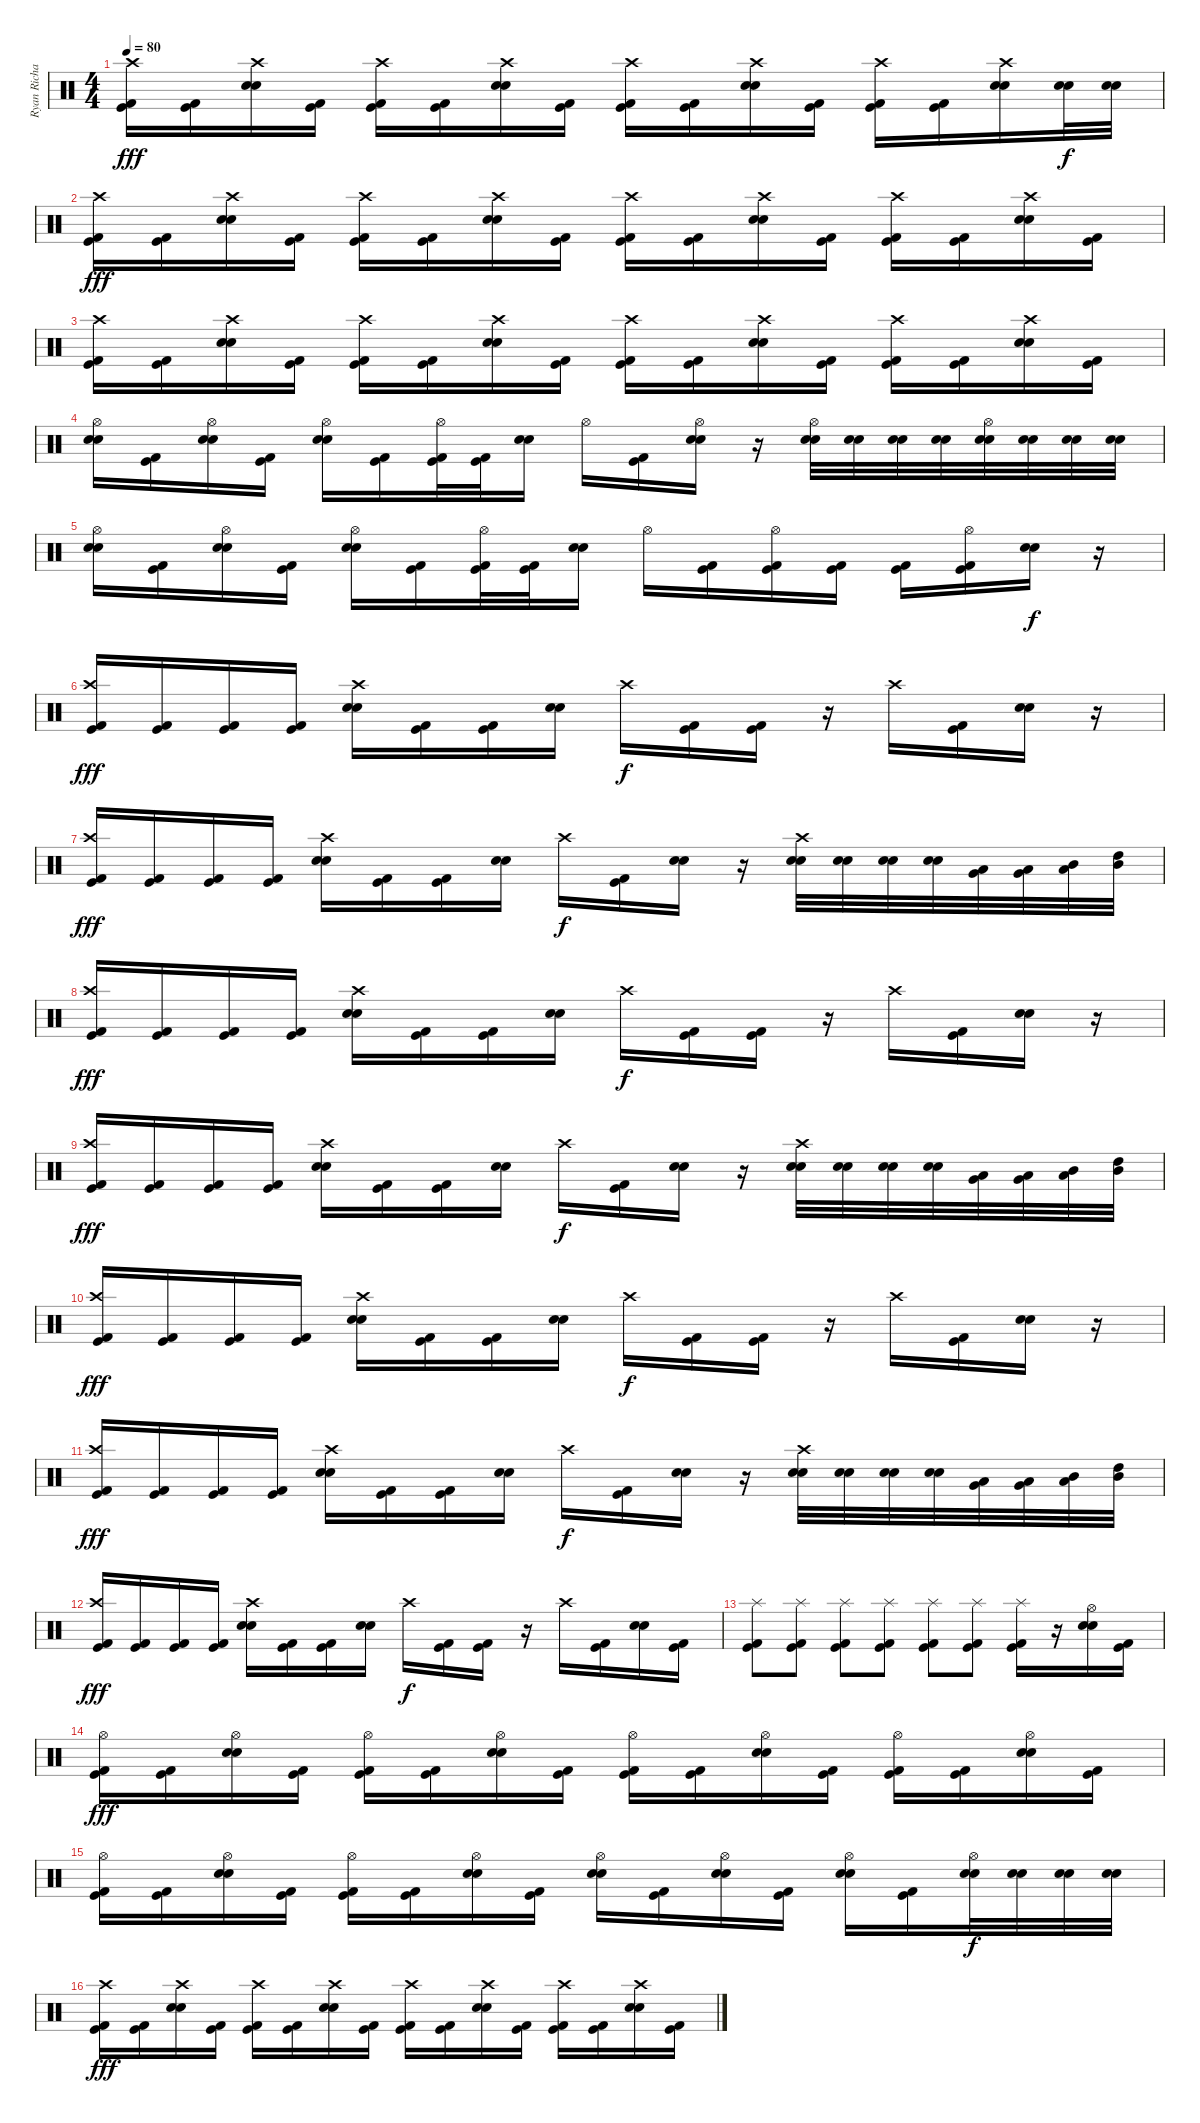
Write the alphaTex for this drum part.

\track ("Ryan Richards" "Ryan Richa") {instrument percussion}
\staff {score}
\articulation defaults
\ts (4 4)
\tempo 80
\clef neutral
\ks c
("Kick (hit)" "Crash high (hit)" "Kick (hit) 2").16{dy fff} ("Kick (hit)" "Kick (hit) 2").16 ("Crash high (hit)" "Snare (hit) 2" "Electric Snare (hit)").16 ("Kick (hit)" "Kick (hit) 2").16 ("Kick (hit)" "Crash high (hit)" "Kick (hit) 2").16 ("Kick (hit)" "Kick (hit) 2").16 ("Crash high (hit)" "Snare (hit) 2" "Electric Snare (hit)").16 ("Kick (hit)" "Kick (hit) 2").16 ("Kick (hit)" "Crash high (hit)" "Kick (hit) 2").16 ("Kick (hit)" "Kick (hit) 2").16 ("Crash high (hit)" "Snare (hit) 2" "Electric Snare (hit)").16 ("Kick (hit)" "Kick (hit) 2").16 ("Kick (hit)" "Crash high (hit)" "Kick (hit) 2").16 ("Kick (hit)" "Kick (hit) 2").16 ("Crash high (hit)" "Snare (hit) 2" "Electric Snare (hit)").16 ("Snare (hit) 2" "Electric Snare (hit)").32{dy f} ("Snare (hit) 2" "Electric Snare (hit)").32 |
("Kick (hit)" "Crash high (hit)" "Kick (hit) 2").16{dy fff} ("Kick (hit)" "Kick (hit) 2").16 ("Crash high (hit)" "Snare (hit) 2" "Electric Snare (hit)").16 ("Kick (hit)" "Kick (hit) 2").16 ("Kick (hit)" "Crash high (hit)" "Kick (hit) 2").16 ("Kick (hit)" "Kick (hit) 2").16 ("Crash high (hit)" "Snare (hit) 2" "Electric Snare (hit)").16 ("Kick (hit)" "Kick (hit) 2").16 ("Kick (hit)" "Crash high (hit)" "Kick (hit) 2").16 ("Kick (hit)" "Kick (hit) 2").16 ("Crash high (hit)" "Snare (hit) 2" "Electric Snare (hit)").16 ("Kick (hit)" "Kick (hit) 2").16 ("Kick (hit)" "Crash high (hit)" "Kick (hit) 2").16 ("Kick (hit)" "Kick (hit) 2").16 ("Crash high (hit)" "Snare (hit) 2" "Electric Snare (hit)").16 ("Kick (hit)" "Kick (hit) 2").16 |
("Kick (hit)" "Crash high (hit)" "Kick (hit) 2").16 ("Kick (hit)" "Kick (hit) 2").16 ("Crash high (hit)" "Snare (hit) 2" "Electric Snare (hit)").16 ("Kick (hit)" "Kick (hit) 2").16 ("Kick (hit)" "Crash high (hit)" "Kick (hit) 2").16 ("Kick (hit)" "Kick (hit) 2").16 ("Crash high (hit)" "Snare (hit) 2" "Electric Snare (hit)").16 ("Kick (hit)" "Kick (hit) 2").16 ("Kick (hit)" "Crash high (hit)" "Kick (hit) 2").16 ("Kick (hit)" "Kick (hit) 2").16 ("Crash high (hit)" "Snare (hit) 2" "Electric Snare (hit)").16 ("Kick (hit)" "Kick (hit) 2").16 ("Kick (hit)" "Crash high (hit)" "Kick (hit) 2").16 ("Kick (hit)" "Kick (hit) 2").16 ("Crash high (hit)" "Snare (hit) 2" "Electric Snare (hit)").16 ("Kick (hit)" "Kick (hit) 2").16 |
("Hi-Hat (open)" "Snare (hit) 2" "Electric Snare (hit)").16 ("Kick (hit)" "Kick (hit) 2").16 ("Hi-Hat (open)" "Snare (hit) 2" "Electric Snare (hit)").16 ("Kick (hit)" "Kick (hit) 2").16 ("Hi-Hat (open)" "Snare (hit) 2" "Electric Snare (hit)").16 ("Kick (hit)" "Kick (hit) 2").16 ("Kick (hit)" "Hi-Hat (open)" "Kick (hit) 2").32 ("Kick (hit)" "Kick (hit) 2").32 ("Snare (hit) 2" "Electric Snare (hit)").16 "Hi-Hat (open)".16 ("Kick (hit)" "Kick (hit) 2").16 ("Hi-Hat (open)" "Snare (hit) 2" "Electric Snare (hit)").16 r.16 ("Hi-Hat (open)" "Snare (hit) 2" "Electric Snare (hit)").32 ("Snare (hit) 2" "Electric Snare (hit)").32 ("Snare (hit) 2" "Electric Snare (hit)").32 ("Snare (hit) 2" "Electric Snare (hit)").32 ("Hi-Hat (open)" "Snare (hit) 2" "Electric Snare (hit)").32 ("Snare (hit) 2" "Electric Snare (hit)").32 ("Snare (hit) 2" "Electric Snare (hit)").32 ("Snare (hit) 2" "Electric Snare (hit)").32 |
("Hi-Hat (open)" "Snare (hit) 2" "Electric Snare (hit)").16 ("Kick (hit)" "Kick (hit) 2").16 ("Hi-Hat (open)" "Snare (hit) 2" "Electric Snare (hit)").16 ("Kick (hit)" "Kick (hit) 2").16 ("Hi-Hat (open)" "Snare (hit) 2" "Electric Snare (hit)").16 ("Kick (hit)" "Kick (hit) 2").16 ("Kick (hit)" "Hi-Hat (open)" "Kick (hit) 2").32 ("Kick (hit)" "Kick (hit) 2").32 ("Snare (hit) 2" "Electric Snare (hit)").16 "Hi-Hat (open)".16 ("Kick (hit)" "Kick (hit) 2").16 ("Kick (hit)" "Hi-Hat (open)" "Kick (hit) 2").16 ("Kick (hit)" "Kick (hit) 2").16 ("Kick (hit)" "Kick (hit) 2").16 ("Kick (hit)" "Hi-Hat (open)" "Kick (hit) 2").16 ("Snare (hit) 2" "Electric Snare (hit)").16{dy f} r.16 |
("Kick (hit)" "Crash high (hit)" "Kick (hit) 2").16{dy fff} ("Kick (hit)" "Kick (hit) 2").16 ("Kick (hit)" "Kick (hit) 2").16 ("Kick (hit)" "Kick (hit) 2").16 ("Snare (hit) 2" "Crash high (hit)" "Electric Snare (hit)").16 ("Kick (hit)" "Kick (hit) 2").16 ("Kick (hit)" "Kick (hit) 2").16 ("Snare (hit) 2" "Electric Snare (hit)").16 "Crash high (hit)".16{dy f} ("Kick (hit)" "Kick (hit) 2").16 ("Kick (hit)" "Kick (hit) 2").16 r.16 "Crash high (hit)".16 ("Kick (hit)" "Kick (hit) 2").16 ("Snare (hit) 2" "Electric Snare (hit)").16 r.16 |
("Kick (hit)" "Crash high (hit)" "Kick (hit) 2").16{dy fff} ("Kick (hit)" "Kick (hit) 2").16 ("Kick (hit)" "Kick (hit) 2").16 ("Kick (hit)" "Kick (hit) 2").16 ("Snare (hit) 2" "Crash high (hit)" "Electric Snare (hit)").16 ("Kick (hit)" "Kick (hit) 2").16 ("Kick (hit)" "Kick (hit) 2").16 ("Snare (hit) 2" "Electric Snare (hit)").16 "Crash high (hit)".16{dy f} ("Kick (hit)" "Kick (hit) 2").16 ("Snare (hit) 2" "Electric Snare (hit)").16 r.16 ("Snare (hit) 2" "Crash high (hit)" "Electric Snare (hit)").32 ("Snare (hit) 2" "Electric Snare (hit)").32 ("Snare (hit) 2" "Electric Snare (hit)").32 ("Snare (hit) 2" "Electric Snare (hit)").32 ("Very Low Tom (hit)" "Low Floor Tom (hit)").32 ("Low Tom (hit)" "Very Low Tom (hit)").32 ("Mid Tom (hit)" "Low Tom (hit)").32 ("High Tom (hit)" "Mid Tom (hit)").32 |
("Kick (hit)" "Crash high (hit)" "Kick (hit) 2").16{dy fff} ("Kick (hit)" "Kick (hit) 2").16 ("Kick (hit)" "Kick (hit) 2").16 ("Kick (hit)" "Kick (hit) 2").16 ("Snare (hit) 2" "Crash high (hit)" "Electric Snare (hit)").16 ("Kick (hit)" "Kick (hit) 2").16 ("Kick (hit)" "Kick (hit) 2").16 ("Snare (hit) 2" "Electric Snare (hit)").16 "Crash high (hit)".16{dy f} ("Kick (hit)" "Kick (hit) 2").16 ("Kick (hit)" "Kick (hit) 2").16 r.16 "Crash high (hit)".16 ("Kick (hit)" "Kick (hit) 2").16 ("Snare (hit) 2" "Electric Snare (hit)").16 r.16 |
("Kick (hit)" "Crash high (hit)" "Kick (hit) 2").16{dy fff} ("Kick (hit)" "Kick (hit) 2").16 ("Kick (hit)" "Kick (hit) 2").16 ("Kick (hit)" "Kick (hit) 2").16 ("Snare (hit) 2" "Crash high (hit)" "Electric Snare (hit)").16 ("Kick (hit)" "Kick (hit) 2").16 ("Kick (hit)" "Kick (hit) 2").16 ("Snare (hit) 2" "Electric Snare (hit)").16 "Crash high (hit)".16{dy f} ("Kick (hit)" "Kick (hit) 2").16 ("Snare (hit) 2" "Electric Snare (hit)").16 r.16 ("Snare (hit) 2" "Crash high (hit)" "Electric Snare (hit)").32 ("Snare (hit) 2" "Electric Snare (hit)").32 ("Snare (hit) 2" "Electric Snare (hit)").32 ("Snare (hit) 2" "Electric Snare (hit)").32 ("Very Low Tom (hit)" "Low Floor Tom (hit)").32 ("Low Tom (hit)" "Very Low Tom (hit)").32 ("Mid Tom (hit)" "Low Tom (hit)").32 ("High Tom (hit)" "Mid Tom (hit)").32 |
("Kick (hit)" "Crash high (hit)" "Kick (hit) 2").16{dy fff} ("Kick (hit)" "Kick (hit) 2").16 ("Kick (hit)" "Kick (hit) 2").16 ("Kick (hit)" "Kick (hit) 2").16 ("Snare (hit) 2" "Crash high (hit)" "Electric Snare (hit)").16 ("Kick (hit)" "Kick (hit) 2").16 ("Kick (hit)" "Kick (hit) 2").16 ("Snare (hit) 2" "Electric Snare (hit)").16 "Crash high (hit)".16{dy f} ("Kick (hit)" "Kick (hit) 2").16 ("Kick (hit)" "Kick (hit) 2").16 r.16 "Crash high (hit)".16 ("Kick (hit)" "Kick (hit) 2").16 ("Snare (hit) 2" "Electric Snare (hit)").16 r.16 |
("Kick (hit)" "Crash high (hit)" "Kick (hit) 2").16{dy fff} ("Kick (hit)" "Kick (hit) 2").16 ("Kick (hit)" "Kick (hit) 2").16 ("Kick (hit)" "Kick (hit) 2").16 ("Snare (hit) 2" "Crash high (hit)" "Electric Snare (hit)").16 ("Kick (hit)" "Kick (hit) 2").16 ("Kick (hit)" "Kick (hit) 2").16 ("Snare (hit) 2" "Electric Snare (hit)").16 "Crash high (hit)".16{dy f} ("Kick (hit)" "Kick (hit) 2").16 ("Snare (hit) 2" "Electric Snare (hit)").16 r.16 ("Snare (hit) 2" "Crash high (hit)" "Electric Snare (hit)").32 ("Snare (hit) 2" "Electric Snare (hit)").32 ("Snare (hit) 2" "Electric Snare (hit)").32 ("Snare (hit) 2" "Electric Snare (hit)").32 ("Very Low Tom (hit)" "Low Floor Tom (hit)").32 ("Low Tom (hit)" "Very Low Tom (hit)").32 ("Mid Tom (hit)" "Low Tom (hit)").32 ("High Tom (hit)" "Mid Tom (hit)").32 |
("Kick (hit)" "Crash high (hit)" "Kick (hit) 2").16{dy fff} ("Kick (hit)" "Kick (hit) 2").16 ("Kick (hit)" "Kick (hit) 2").16 ("Kick (hit)" "Kick (hit) 2").16 ("Snare (hit) 2" "Crash high (hit)" "Electric Snare (hit)").16 ("Kick (hit)" "Kick (hit) 2").16 ("Kick (hit)" "Kick (hit) 2").16 ("Snare (hit) 2" "Electric Snare (hit)").16 "Crash high (hit)".16{dy f} ("Kick (hit)" "Kick (hit) 2").16 ("Kick (hit)" "Kick (hit) 2").16 r.16 "Crash high (hit)".16 ("Kick (hit)" "Kick (hit) 2").16 ("Snare (hit) 2" "Electric Snare (hit)").16 ("Kick (hit)" "Kick (hit) 2").16 |
("Kick (hit)" "Splash (hit)" "Kick (hit) 2").8 ("Kick (hit)" "Splash (hit)" "Kick (hit) 2").8 ("Kick (hit)" "Splash (hit)" "Kick (hit) 2").8 ("Kick (hit)" "Splash (hit)" "Kick (hit) 2").8 ("Kick (hit)" "Splash (hit)" "Kick (hit) 2").8 ("Kick (hit)" "Splash (hit)" "Kick (hit) 2").8 ("Kick (hit)" "Splash (hit)" "Kick (hit) 2").16 r.16 ("Hi-Hat (open)" "Snare (hit) 2" "Electric Snare (hit)").16 ("Kick (hit)" "Kick (hit) 2").16 |
("Kick (hit)" "Hi-Hat (open)" "Kick (hit) 2").16{dy fff} ("Kick (hit)" "Kick (hit) 2").16 ("Hi-Hat (open)" "Snare (hit) 2" "Electric Snare (hit)").16 ("Kick (hit)" "Kick (hit) 2").16 ("Kick (hit)" "Hi-Hat (open)" "Kick (hit) 2").16 ("Kick (hit)" "Kick (hit) 2").16 ("Hi-Hat (open)" "Snare (hit) 2" "Electric Snare (hit)").16 ("Kick (hit)" "Kick (hit) 2").16 ("Kick (hit)" "Hi-Hat (open)" "Kick (hit) 2").16 ("Kick (hit)" "Kick (hit) 2").16 ("Hi-Hat (open)" "Snare (hit) 2" "Electric Snare (hit)").16 ("Kick (hit)" "Kick (hit) 2").16 ("Kick (hit)" "Hi-Hat (open)" "Kick (hit) 2").16 ("Kick (hit)" "Kick (hit) 2").16 ("Hi-Hat (open)" "Snare (hit) 2" "Electric Snare (hit)").16 ("Kick (hit)" "Kick (hit) 2").16 |
("Kick (hit)" "Hi-Hat (open)" "Kick (hit) 2").16 ("Kick (hit)" "Kick (hit) 2").16 ("Hi-Hat (open)" "Snare (hit) 2" "Electric Snare (hit)").16 ("Kick (hit)" "Kick (hit) 2").16 ("Kick (hit)" "Hi-Hat (open)" "Kick (hit) 2").16 ("Kick (hit)" "Kick (hit) 2").16 ("Hi-Hat (open)" "Snare (hit) 2" "Electric Snare (hit)").16 ("Kick (hit)" "Kick (hit) 2").16 ("Hi-Hat (open)" "Snare (hit) 2" "Electric Snare (hit)").16 ("Kick (hit)" "Kick (hit) 2").16 ("Hi-Hat (open)" "Snare (hit) 2" "Electric Snare (hit)").16 ("Kick (hit)" "Kick (hit) 2").16 ("Hi-Hat (open)" "Snare (hit) 2" "Electric Snare (hit)").16 ("Kick (hit)" "Kick (hit) 2").16 ("Hi-Hat (open)" "Snare (hit) 2" "Electric Snare (hit)").32{dy f} ("Snare (hit) 2" "Electric Snare (hit)").32 ("Snare (hit) 2" "Electric Snare (hit)").32 ("Snare (hit) 2" "Electric Snare (hit)").32 |
("Kick (hit)" "Crash high (hit)" "Kick (hit) 2").16{dy fff} ("Kick (hit)" "Kick (hit) 2").16 ("Crash high (hit)" "Snare (hit) 2" "Electric Snare (hit)").16 ("Kick (hit)" "Kick (hit) 2").16 ("Kick (hit)" "Crash high (hit)" "Kick (hit) 2").16 ("Kick (hit)" "Kick (hit) 2").16 ("Crash high (hit)" "Snare (hit) 2" "Electric Snare (hit)").16 ("Kick (hit)" "Kick (hit) 2").16 ("Kick (hit)" "Crash high (hit)" "Kick (hit) 2").16 ("Kick (hit)" "Kick (hit) 2").16 ("Crash high (hit)" "Snare (hit) 2" "Electric Snare (hit)").16 ("Kick (hit)" "Kick (hit) 2").16 ("Kick (hit)" "Crash high (hit)" "Kick (hit) 2").16 ("Kick (hit)" "Kick (hit) 2").16 ("Crash high (hit)" "Snare (hit) 2" "Electric Snare (hit)").16 ("Kick (hit)" "Kick (hit) 2").16
